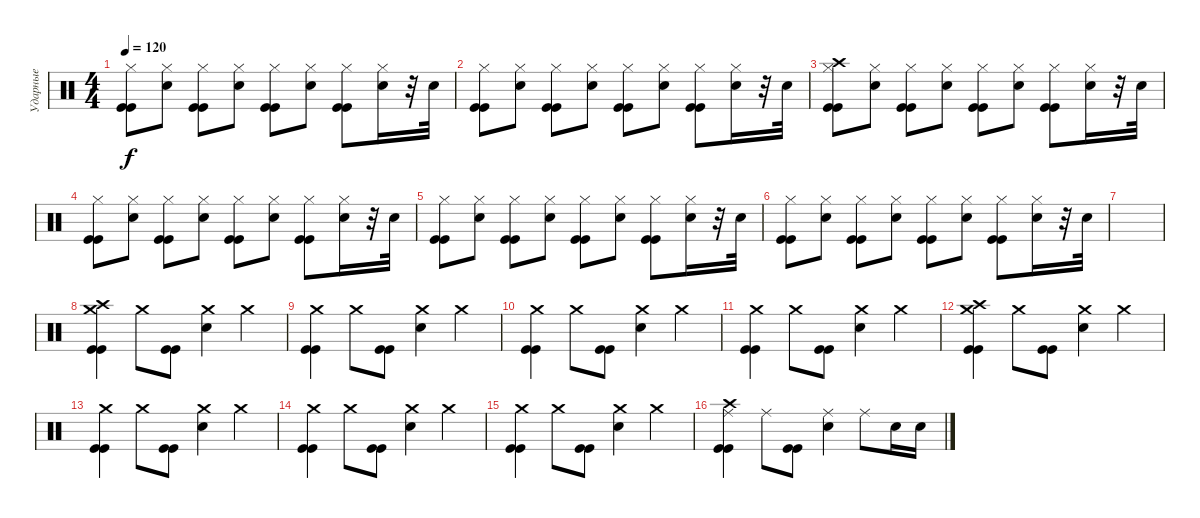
\track ("Ударные" "Ударные") {instrument percussion}
\staff {score}
\articulation defaults
\ts (4 4)
\tempo 120
\clef neutral
\ks c
("Hi-Hat (closed)" "Kick (hit)" "Kick (hit)").8{dy f} ("Hi-Hat (closed)" "Electric Snare (hit)").8 ("Hi-Hat (closed)" "Kick (hit)" "Kick (hit)").8 ("Hi-Hat (closed)" "Electric Snare (hit)").8 ("Hi-Hat (closed)" "Kick (hit)" "Kick (hit)").8 ("Hi-Hat (closed)" "Electric Snare (hit)").8 ("Hi-Hat (closed)" "Kick (hit)" "Kick (hit)").8 ("Hi-Hat (closed)" "Electric Snare (hit)").16 r.32 "Electric Snare (hit)".32 |
("Hi-Hat (closed)" "Kick (hit)" "Kick (hit)").8 ("Hi-Hat (closed)" "Electric Snare (hit)").8 ("Hi-Hat (closed)" "Kick (hit)" "Kick (hit)").8 ("Hi-Hat (closed)" "Electric Snare (hit)").8 ("Hi-Hat (closed)" "Kick (hit)" "Kick (hit)").8 ("Hi-Hat (closed)" "Electric Snare (hit)").8 ("Hi-Hat (closed)" "Kick (hit)" "Kick (hit)").8 ("Hi-Hat (closed)" "Electric Snare (hit)").16 r.32 "Electric Snare (hit)".32 |
("Crash high (hit)" "Hi-Hat (closed)" "Kick (hit)" "Kick (hit)").8 ("Hi-Hat (closed)" "Electric Snare (hit)").8 ("Hi-Hat (closed)" "Kick (hit)" "Kick (hit)").8 ("Hi-Hat (closed)" "Electric Snare (hit)").8 ("Hi-Hat (closed)" "Kick (hit)" "Kick (hit)").8 ("Hi-Hat (closed)" "Electric Snare (hit)").8 ("Hi-Hat (closed)" "Kick (hit)" "Kick (hit)").8 ("Hi-Hat (closed)" "Electric Snare (hit)").16 r.32 "Electric Snare (hit)".32 |
("Hi-Hat (closed)" "Kick (hit)" "Kick (hit)").8 ("Hi-Hat (closed)" "Electric Snare (hit)").8 ("Hi-Hat (closed)" "Kick (hit)" "Kick (hit)").8 ("Hi-Hat (closed)" "Electric Snare (hit)").8 ("Hi-Hat (closed)" "Kick (hit)" "Kick (hit)").8 ("Hi-Hat (closed)" "Electric Snare (hit)").8 ("Hi-Hat (closed)" "Kick (hit)" "Kick (hit)").8 ("Hi-Hat (closed)" "Electric Snare (hit)").16 r.32 "Electric Snare (hit)".32 |
("Hi-Hat (closed)" "Kick (hit)" "Kick (hit)").8 ("Hi-Hat (closed)" "Electric Snare (hit)").8 ("Hi-Hat (closed)" "Kick (hit)" "Kick (hit)").8 ("Hi-Hat (closed)" "Electric Snare (hit)").8 ("Hi-Hat (closed)" "Kick (hit)" "Kick (hit)").8 ("Hi-Hat (closed)" "Electric Snare (hit)").8 ("Hi-Hat (closed)" "Kick (hit)" "Kick (hit)").8 ("Hi-Hat (closed)" "Electric Snare (hit)").16 r.32 "Electric Snare (hit)".32 |
("Hi-Hat (closed)" "Kick (hit)" "Kick (hit)").8 ("Hi-Hat (closed)" "Electric Snare (hit)").8 ("Hi-Hat (closed)" "Kick (hit)" "Kick (hit)").8 ("Hi-Hat (closed)" "Electric Snare (hit)").8 ("Hi-Hat (closed)" "Kick (hit)" "Kick (hit)").8 ("Hi-Hat (closed)" "Electric Snare (hit)").8 ("Hi-Hat (closed)" "Kick (hit)" "Kick (hit)").8 ("Hi-Hat (closed)" "Electric Snare (hit)").16 r.32 "Electric Snare (hit)".32 |
|
("Crash high (hit)" "Crash medium (hit)" "Kick (hit)" "Kick (hit)").4 "Crash medium (hit)".8 ("Kick (hit)" "Kick (hit)").8 ("Crash medium (hit)" "Electric Snare (hit)").4 "Crash medium (hit)".4 |
("Crash medium (hit)" "Kick (hit)" "Kick (hit)").4 "Crash medium (hit)".8 ("Kick (hit)" "Kick (hit)").8 ("Crash medium (hit)" "Electric Snare (hit)").4 "Crash medium (hit)".4 |
("Crash medium (hit)" "Kick (hit)" "Kick (hit)").4 "Crash medium (hit)".8 ("Kick (hit)" "Kick (hit)").8 ("Crash medium (hit)" "Electric Snare (hit)").4 "Crash medium (hit)".4 |
("Crash medium (hit)" "Kick (hit)" "Kick (hit)").4 "Crash medium (hit)".8 ("Kick (hit)" "Kick (hit)").8 ("Crash medium (hit)" "Electric Snare (hit)").4 "Crash medium (hit)".4 |
("Crash high (hit)" "Crash medium (hit)" "Kick (hit)" "Kick (hit)").4 "Crash medium (hit)".8 ("Kick (hit)" "Kick (hit)").8 ("Crash medium (hit)" "Electric Snare (hit)").4 "Crash medium (hit)".4 |
("Crash medium (hit)" "Kick (hit)" "Kick (hit)").4 "Crash medium (hit)".8 ("Kick (hit)" "Kick (hit)").8 ("Crash medium (hit)" "Electric Snare (hit)").4 "Crash medium (hit)".4 |
("Crash medium (hit)" "Kick (hit)" "Kick (hit)").4 "Crash medium (hit)".8 ("Kick (hit)" "Kick (hit)").8 ("Crash medium (hit)" "Electric Snare (hit)").4 "Crash medium (hit)".4 |
("Crash medium (hit)" "Kick (hit)" "Kick (hit)").4 "Crash medium (hit)".8 ("Kick (hit)" "Kick (hit)").8 ("Crash medium (hit)" "Electric Snare (hit)").4 "Crash medium (hit)".4 |
("Crash high (hit)" "Ride (middle)" "Kick (hit)" "Kick (hit)").4 "Ride (middle)".8 ("Kick (hit)" "Kick (hit)").8 ("Ride (middle)" "Electric Snare (hit)").4 "Ride (middle)".8 "Electric Snare (hit)".16 "Electric Snare (hit)".16
